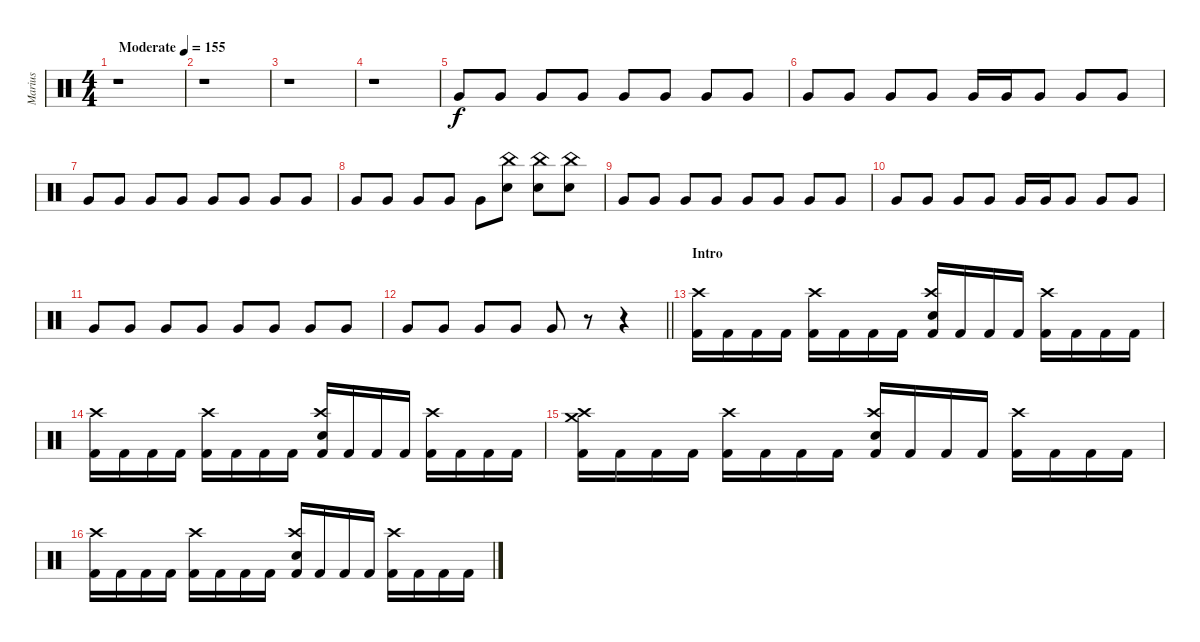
\track ("Marius" "Marius") {instrument percussion}
\staff {score}
\articulation defaults
\ts (4 4)
\tempo (155 "Moderate")
\clef neutral
\ks c
r.1{dy f} |
r.1 |
r.1 |
r.1 |
"Very Low Tom (hit)".8 "Very Low Tom (hit)".8 "Very Low Tom (hit)".8 "Very Low Tom (hit)".8 "Very Low Tom (hit)".8 "Very Low Tom (hit)".8 "Very Low Tom (hit)".8 "Very Low Tom (hit)".8 |
"Very Low Tom (hit)".8 "Very Low Tom (hit)".8 "Very Low Tom (hit)".8 "Very Low Tom (hit)".8 "Very Low Tom (hit)".16 "Very Low Tom (hit)".16 "Very Low Tom (hit)".8 "Very Low Tom (hit)".8 "Very Low Tom (hit)".8 |
"Very Low Tom (hit)".8 "Very Low Tom (hit)".8 "Very Low Tom (hit)".8 "Very Low Tom (hit)".8 "Very Low Tom (hit)".8 "Very Low Tom (hit)".8 "Very Low Tom (hit)".8 "Very Low Tom (hit)".8 |
"Very Low Tom (hit)".8 "Very Low Tom (hit)".8 "Very Low Tom (hit)".8 "Very Low Tom (hit)".8 "Very Low Tom (hit)".8 ("China (hit)" "Snare (hit) 2").8 ("China (hit)" "Snare (hit) 2").8 ("China (hit)" "Snare (hit) 2").8 |
"Very Low Tom (hit)".8 "Very Low Tom (hit)".8 "Very Low Tom (hit)".8 "Very Low Tom (hit)".8 "Very Low Tom (hit)".8 "Very Low Tom (hit)".8 "Very Low Tom (hit)".8 "Very Low Tom (hit)".8 |
"Very Low Tom (hit)".8 "Very Low Tom (hit)".8 "Very Low Tom (hit)".8 "Very Low Tom (hit)".8 "Very Low Tom (hit)".16 "Very Low Tom (hit)".16 "Very Low Tom (hit)".8 "Very Low Tom (hit)".8 "Very Low Tom (hit)".8 |
"Very Low Tom (hit)".8 "Very Low Tom (hit)".8 "Very Low Tom (hit)".8 "Very Low Tom (hit)".8 "Very Low Tom (hit)".8 "Very Low Tom (hit)".8 "Very Low Tom (hit)".8 "Very Low Tom (hit)".8 |
\barLineRight lightlight "Very Low Tom (hit)".8 "Very Low Tom (hit)".8 "Very Low Tom (hit)".8 "Very Low Tom (hit)".8 "Very Low Tom (hit)".8
r.8 r.4 |
\section ("" "Intro")
("Crash high (hit)" "Kick (hit) 2").16 "Kick (hit) 2".16 "Kick (hit) 2".16 "Kick (hit) 2".16 ("Crash high (hit)" "Kick (hit) 2").16 "Kick (hit) 2".16 "Kick (hit) 2".16 "Kick (hit) 2".16 ("Crash high (hit)" "Snare (hit) 2" "Kick (hit) 2").16 "Kick (hit) 2".16 "Kick (hit) 2".16 "Kick (hit) 2".16 ("Crash high (hit)" "Kick (hit) 2").16 "Kick (hit) 2".16 "Kick (hit) 2".16 "Kick (hit) 2".16 |
("Crash high (hit)" "Kick (hit) 2").16 "Kick (hit) 2".16 "Kick (hit) 2".16 "Kick (hit) 2".16 ("Crash high (hit)" "Kick (hit) 2").16 "Kick (hit) 2".16 "Kick (hit) 2".16 "Kick (hit) 2".16 ("Crash high (hit)" "Snare (hit) 2" "Kick (hit) 2").16 "Kick (hit) 2".16 "Kick (hit) 2".16 "Kick (hit) 2".16 ("Crash high (hit)" "Kick (hit) 2").16 "Kick (hit) 2".16 "Kick (hit) 2".16 "Kick (hit) 2".16 |
("Crash high (hit)" "Crash medium (hit)" "Kick (hit) 2").16 "Kick (hit) 2".16 "Kick (hit) 2".16 "Kick (hit) 2".16 ("Crash high (hit)" "Kick (hit) 2").16 "Kick (hit) 2".16 "Kick (hit) 2".16 "Kick (hit) 2".16 ("Crash high (hit)" "Snare (hit) 2" "Kick (hit) 2").16 "Kick (hit) 2".16 "Kick (hit) 2".16 "Kick (hit) 2".16 ("Crash high (hit)" "Kick (hit) 2").16 "Kick (hit) 2".16 "Kick (hit) 2".16 "Kick (hit) 2".16 |
("Crash high (hit)" "Kick (hit) 2").16 "Kick (hit) 2".16 "Kick (hit) 2".16 "Kick (hit) 2".16 ("Crash high (hit)" "Kick (hit) 2").16 "Kick (hit) 2".16 "Kick (hit) 2".16 "Kick (hit) 2".16 ("Crash high (hit)" "Snare (hit) 2" "Kick (hit) 2").16 "Kick (hit) 2".16 "Kick (hit) 2".16 "Kick (hit) 2".16 ("Crash high (hit)" "Kick (hit) 2").16 "Kick (hit) 2".16 "Kick (hit) 2".16 "Kick (hit) 2".16
